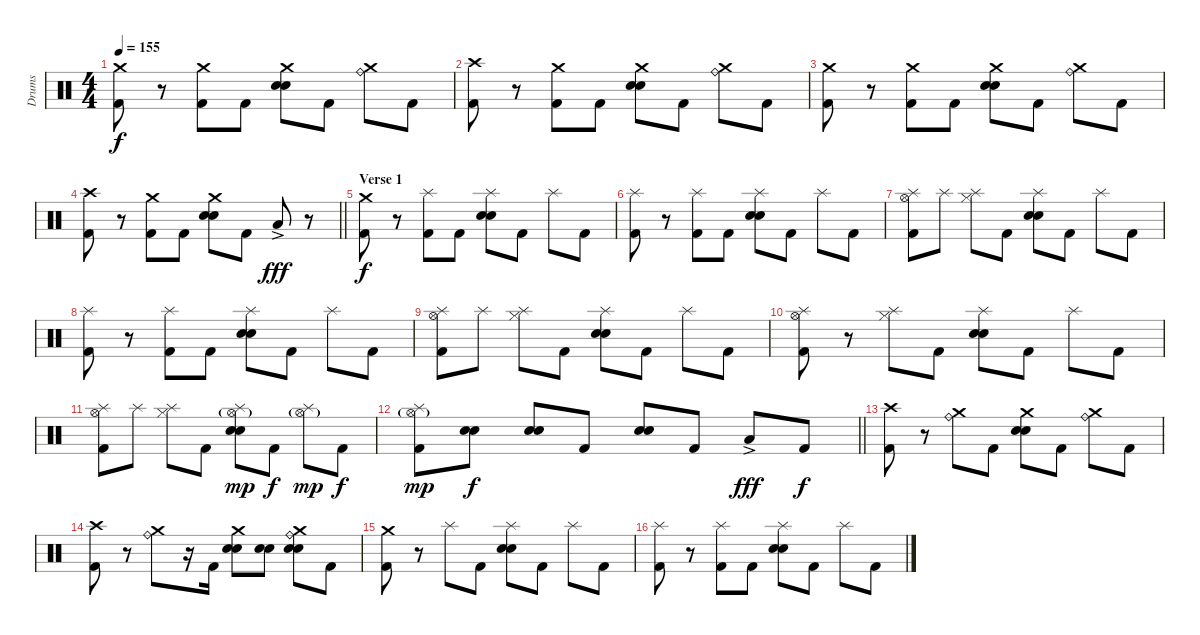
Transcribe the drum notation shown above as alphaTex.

\track ("Drums" "Drums") {instrument percussion}
\staff {score}
\articulation defaults
\ts (4 4)
\tempo 155
\clef neutral
\ks c
("Crash medium (hit)" "Kick (hit) 2").8{dy f} r.8 ("Crash medium (hit)" "Kick (hit) 2").8 "Kick (hit) 2".8 ("Crash medium (hit)" "Snare (hit) 2" "Electric Snare (hit)").8 "Kick (hit) 2".8 ("Crash medium (hit)" "Ride (bell)").8 "Kick (hit) 2".8 |
("Crash high (hit)" "Kick (hit) 2").8 r.8 ("Crash medium (hit)" "Kick (hit) 2").8 "Kick (hit) 2".8 ("Crash medium (hit)" "Snare (hit) 2" "Electric Snare (hit)").8 "Kick (hit) 2".8 ("Crash medium (hit)" "Ride (bell)").8 "Kick (hit) 2".8 |
("Crash medium (hit)" "Kick (hit) 2").8 r.8 ("Crash medium (hit)" "Kick (hit) 2").8 "Kick (hit) 2".8 ("Crash medium (hit)" "Snare (hit) 2" "Electric Snare (hit)").8 "Kick (hit) 2".8 ("Crash medium (hit)" "Ride (bell)").8 "Kick (hit) 2".8 |
\barLineRight lightlight
("Crash high (hit)" "Kick (hit) 2").8 r.8 ("Crash medium (hit)" "Kick (hit) 2").8 "Kick (hit) 2".8 ("Crash medium (hit)" "Snare (hit) 2" "Electric Snare (hit)").8 "Kick (hit) 2".8 "Low Floor Tom (hit)"{ac}.8{dy fff} r.8 |
\section ("" "Verse 1")
("Crash medium (hit)" "Kick (hit) 2").8{dy f} r.8 ("Splash (hit)" "Kick (hit) 2").8 "Kick (hit) 2".8 ("Splash (hit)" "Snare (hit) 2" "Electric Snare (hit)").8 "Kick (hit) 2".8 "Splash (hit)".8 "Kick (hit) 2".8 |
("Splash (hit)" "Kick (hit) 2").8 r.8 ("Splash (hit)" "Kick (hit) 2").8 "Kick (hit) 2".8 ("Splash (hit)" "Snare (hit) 2" "Electric Snare (hit)").8 "Kick (hit) 2".8 "Splash (hit)".8 "Kick (hit) 2".8 |
("Splash (hit)" "Hi-Hat (open)" "Kick (hit) 2").8 "Splash (hit)".8 ("Splash (hit)" "Hi-Hat (closed)").8 "Kick (hit) 2".8 ("Splash (hit)" "Snare (hit) 2" "Electric Snare (hit)").8 "Kick (hit) 2".8 "Splash (hit)".8 "Kick (hit) 2".8 |
("Splash (hit)" "Kick (hit) 2").8 r.8 ("Splash (hit)" "Kick (hit) 2").8 "Kick (hit) 2".8 ("Splash (hit)" "Snare (hit) 2" "Electric Snare (hit)").8 "Kick (hit) 2".8 "Splash (hit)".8 "Kick (hit) 2".8 |
("Splash (hit)" "Hi-Hat (open)" "Kick (hit) 2").8 "Splash (hit)".8 ("Splash (hit)" "Hi-Hat (closed)").8 "Kick (hit) 2".8 ("Splash (hit)" "Snare (hit) 2" "Electric Snare (hit)").8 "Kick (hit) 2".8 "Splash (hit)".8 "Kick (hit) 2".8 |
("Splash (hit)" "Hi-Hat (open)" "Kick (hit) 2").8 r.8 ("Splash (hit)" "Hi-Hat (closed)").8 "Kick (hit) 2".8 ("Splash (hit)" "Snare (hit) 2" "Electric Snare (hit)").8 "Kick (hit) 2".8 "Splash (hit)".8 "Kick (hit) 2".8 |
("Splash (hit)" "Hi-Hat (open)" "Kick (hit) 2").8 "Splash (hit)".8 ("Splash (hit)" "Hi-Hat (closed)").8 "Kick (hit) 2".8 ("Splash (hit)" "Hi-Hat (open)"{g} "Snare (hit) 2" "Electric Snare (hit)").8{dy mp} "Kick (hit) 2".8{dy f} ("Splash (hit)" "Hi-Hat (open)"{g}).8{dy mp} "Kick (hit) 2".8{dy f} |
\barLineRight lightlight
("Splash (hit)" "Hi-Hat (open)"{g} "Kick (hit) 2").8{dy mp} ("Snare (hit) 2" "Electric Snare (hit)").8{dy f} ("Snare (hit) 2" "Electric Snare (hit)").8 "Kick (hit) 2".8 ("Snare (hit) 2" "Electric Snare (hit)").8 "Kick (hit) 2".8 "Low Floor Tom (hit)"{ac}.8{dy fff} "Kick (hit) 2".8{dy f} |
\section ("" "")
("Crash high (hit)" "Kick (hit) 2").8 r.8 ("Crash medium (hit)" "Ride (bell)").8 "Kick (hit) 2".8 ("Crash medium (hit)" "Snare (hit) 2" "Electric Snare (hit)").8 "Kick (hit) 2".8 ("Crash medium (hit)" "Ride (bell)").8 "Kick (hit) 2".8 |
("Crash high (hit)" "Kick (hit) 2").8 r.8 ("Crash medium (hit)" "Ride (bell)").8 r.16 "Kick (hit) 2".16 ("Crash medium (hit)" "Snare (hit) 2" "Electric Snare (hit)").8 ("Snare (hit) 2" "Electric Snare (hit)").8 ("Crash medium (hit)" "Ride (bell)" "Snare (hit) 2" "Electric Snare (hit)").8 "Kick (hit) 2".8 |
("Crash medium (hit)" "Kick (hit) 2").8 r.8 "Splash (hit)".8 "Kick (hit) 2".8 ("Splash (hit)" "Snare (hit) 2" "Electric Snare (hit)").8 "Kick (hit) 2".8 "Splash (hit)".8 "Kick (hit) 2".8 |
("Splash (hit)" "Kick (hit) 2").8 r.8 ("Splash (hit)" "Kick (hit) 2").8 "Kick (hit) 2".8 ("Splash (hit)" "Snare (hit) 2" "Electric Snare (hit)").8 "Kick (hit) 2".8 "Splash (hit)".8 "Kick (hit) 2".8
